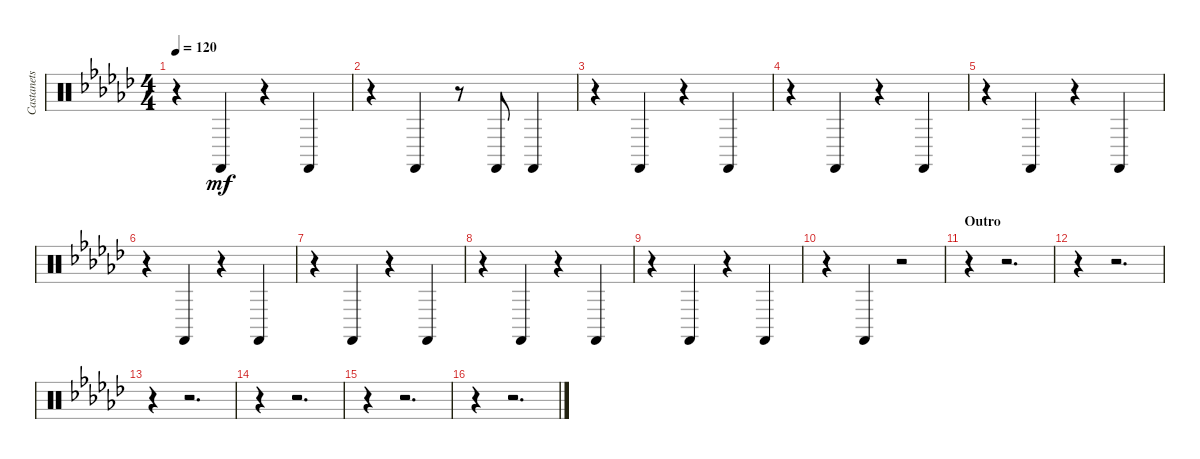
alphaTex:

\track ("Castanets" "Castanets") {instrument percussion}
\staff {score}
\articulation defaults
\ts (4 4)
\tempo 120
\clef neutral
\ks ebminor
r.4{dy mf} "Castanets (hit)".4 r.4 "Castanets (hit)".4 |
r.4 "Castanets (hit)".4 r.8 "Castanets (hit)".8 "Castanets (hit)".4 |
r.4 "Castanets (hit)".4 r.4 "Castanets (hit)".4 |
r.4 "Castanets (hit)".4 r.4 "Castanets (hit)".4 |
r.4 "Castanets (hit)".4 r.4 "Castanets (hit)".4 |
r.4 "Castanets (hit)".4 r.4 "Castanets (hit)".4 |
r.4 "Castanets (hit)".4 r.4 "Castanets (hit)".4 |
r.4 "Castanets (hit)".4 r.4 "Castanets (hit)".4 |
r.4 "Castanets (hit)".4 r.4 "Castanets (hit)".4 |
r.4 "Castanets (hit)".4 r.2 |
\section ("" "Outro")
r.4 r.2{d} |
r.4 r.2{d} |
r.4 r.2{d} |
r.4 r.2{d} |
r.4 r.2{d} |
r.4 r.2{d}
